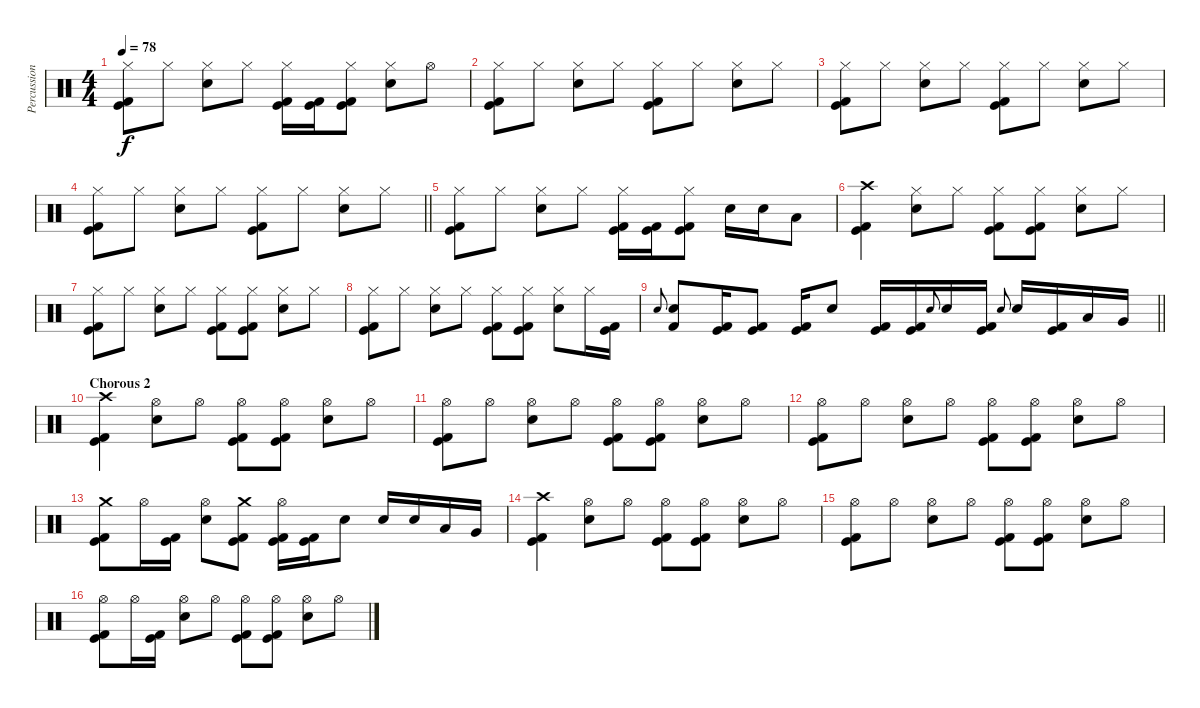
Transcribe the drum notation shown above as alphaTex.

\track ("Percussion" "Percussion") {instrument percussion}
\staff {score}
\articulation defaults
\ts (4 4)
\tempo 78
\clef neutral
\ks c
("Hi-Hat (closed)" "Kick (hit)" "Kick (hit) 2").8{dy f} "Hi-Hat (closed)".8 ("Hi-Hat (closed)" "Electric Snare (hit)").8 "Hi-Hat (closed)".8 ("Hi-Hat (closed)" "Kick (hit)" "Kick (hit) 2").16 ("Kick (hit)" "Kick (hit) 2").16 ("Hi-Hat (closed)" "Kick (hit)" "Kick (hit) 2").8 ("Hi-Hat (closed)" "Electric Snare (hit)").8 "Hi-Hat (open)".8 |
("Hi-Hat (closed)" "Kick (hit)" "Kick (hit) 2").8 "Hi-Hat (closed)".8 ("Hi-Hat (closed)" "Electric Snare (hit)").8 "Hi-Hat (closed)".8 ("Hi-Hat (closed)" "Kick (hit)" "Kick (hit) 2").8 "Hi-Hat (closed)".8 ("Hi-Hat (closed)" "Electric Snare (hit)").8 "Hi-Hat (closed)".8 |
("Hi-Hat (closed)" "Kick (hit)" "Kick (hit) 2").8 "Hi-Hat (closed)".8 ("Hi-Hat (closed)" "Electric Snare (hit)").8 "Hi-Hat (closed)".8 ("Hi-Hat (closed)" "Kick (hit)" "Kick (hit) 2").8 "Hi-Hat (closed)".8 ("Hi-Hat (closed)" "Electric Snare (hit)").8 "Hi-Hat (closed)".8 |
\barLineRight lightlight
("Hi-Hat (closed)" "Kick (hit)" "Kick (hit) 2").8 "Hi-Hat (closed)".8 ("Hi-Hat (closed)" "Electric Snare (hit)").8 "Hi-Hat (closed)".8 ("Hi-Hat (closed)" "Kick (hit)" "Kick (hit) 2").8 "Hi-Hat (closed)".8 ("Hi-Hat (closed)" "Electric Snare (hit)").8 "Hi-Hat (closed)".8 |
\section ("" "")
("Hi-Hat (closed)" "Kick (hit)" "Kick (hit) 2").8 "Hi-Hat (closed)".8 ("Hi-Hat (closed)" "Electric Snare (hit)").8 "Hi-Hat (closed)".8 ("Hi-Hat (closed)" "Kick (hit)" "Kick (hit) 2").16 ("Kick (hit)" "Kick (hit) 2").16 ("Hi-Hat (closed)" "Kick (hit)" "Kick (hit) 2").8 "Electric Snare (hit)".16 "Electric Snare (hit)".16 "Low Tom (hit)".8 |
("Crash high (hit)" "Kick (hit)" "Kick (hit) 2").4 ("Hi-Hat (closed)" "Electric Snare (hit)").8 "Hi-Hat (closed)".8 ("Hi-Hat (closed)" "Kick (hit)" "Kick (hit) 2").8 ("Hi-Hat (closed)" "Kick (hit)" "Kick (hit) 2").8 ("Hi-Hat (closed)" "Electric Snare (hit)").8 "Hi-Hat (closed)".8 |
("Hi-Hat (closed)" "Kick (hit)" "Kick (hit) 2").8 "Hi-Hat (closed)".8 ("Hi-Hat (closed)" "Electric Snare (hit)").8 "Hi-Hat (closed)".8 ("Hi-Hat (closed)" "Kick (hit)" "Kick (hit) 2").8 ("Hi-Hat (closed)" "Kick (hit)" "Kick (hit) 2").8 ("Hi-Hat (closed)" "Electric Snare (hit)").8 "Hi-Hat (closed)".8 |
("Hi-Hat (closed)" "Kick (hit)" "Kick (hit) 2").8 "Hi-Hat (closed)".8 ("Hi-Hat (closed)" "Electric Snare (hit)").8 "Hi-Hat (closed)".8 ("Hi-Hat (closed)" "Kick (hit)" "Kick (hit) 2").8 ("Hi-Hat (closed)" "Kick (hit)" "Kick (hit) 2").8 ("Hi-Hat (closed)" "Electric Snare (hit)").8 "Hi-Hat (closed)".16 ("Kick (hit)" "Kick (hit) 2").16 |
\barLineRight lightlight "Electric Snare (hit)".8{gr onbeat}
("Electric Snare (hit)" "Kick (hit) 2").8 ("Kick (hit)" "Kick (hit) 2").16 ("Kick (hit)" "Kick (hit) 2").8 ("Kick (hit)" "Kick (hit) 2").16 "Electric Snare (hit)".8 ("Kick (hit)" "Kick (hit) 2").16 ("Kick (hit)" "Kick (hit) 2").16 "Electric Snare (hit)".8{gr onbeat} "Electric Snare (hit)".16 ("Kick (hit)" "Kick (hit) 2").16 "Electric Snare (hit)".8{gr onbeat} "Electric Snare (hit)".16 ("Kick (hit)" "Kick (hit) 2").16 "Low Tom (hit)".16 "Very Low Tom (hit)".16 |
\section ("" "Chorous 2")
("Crash high (hit)" "Kick (hit)" "Kick (hit) 2").4 ("Hi-Hat (open)" "Electric Snare (hit)").8 "Hi-Hat (open)".8 ("Hi-Hat (open)" "Kick (hit)" "Kick (hit) 2").8 ("Hi-Hat (open)" "Kick (hit)" "Kick (hit) 2").8 ("Hi-Hat (open)" "Electric Snare (hit)").8 "Hi-Hat (open)".8 |
("Hi-Hat (open)" "Kick (hit)" "Kick (hit) 2").8 "Hi-Hat (open)".8 ("Hi-Hat (open)" "Electric Snare (hit)").8 "Hi-Hat (open)".8 ("Hi-Hat (open)" "Kick (hit)" "Kick (hit) 2").8 ("Hi-Hat (open)" "Kick (hit)" "Kick (hit) 2").8 ("Hi-Hat (open)" "Electric Snare (hit)").8 "Hi-Hat (open)".8 |
("Hi-Hat (open)" "Kick (hit)" "Kick (hit) 2").8 "Hi-Hat (open)".8 ("Hi-Hat (open)" "Electric Snare (hit)").8 "Hi-Hat (open)".8 ("Hi-Hat (open)" "Kick (hit)" "Kick (hit) 2").8 ("Hi-Hat (open)" "Kick (hit)" "Kick (hit) 2").8 ("Hi-Hat (open)" "Electric Snare (hit)").8 "Hi-Hat (open)".8 |
("Crash medium (hit)" "Kick (hit)" "Kick (hit) 2").8 "Hi-Hat (open)".16 ("Kick (hit)" "Kick (hit) 2").16 ("Hi-Hat (open)" "Electric Snare (hit)").8 ("Crash medium (hit)" "Kick (hit)" "Kick (hit) 2").8 ("Hi-Hat (open)" "Kick (hit)" "Kick (hit) 2").16 ("Kick (hit)" "Kick (hit) 2").16 "Electric Snare (hit)".8 "Electric Snare (hit)".16 "Electric Snare (hit)".16 "Low Tom (hit)".16 "Very Low Tom (hit)".16 |
("Crash high (hit)" "Kick (hit)" "Kick (hit) 2").4 ("Hi-Hat (open)" "Electric Snare (hit)").8 "Hi-Hat (open)".8 ("Hi-Hat (open)" "Kick (hit)" "Kick (hit) 2").8 ("Hi-Hat (open)" "Kick (hit)" "Kick (hit) 2").8 ("Hi-Hat (open)" "Electric Snare (hit)").8 "Hi-Hat (open)".8 |
("Hi-Hat (open)" "Kick (hit)" "Kick (hit) 2").8 "Hi-Hat (open)".8 ("Hi-Hat (open)" "Electric Snare (hit)").8 "Hi-Hat (open)".8 ("Hi-Hat (open)" "Kick (hit)" "Kick (hit) 2").8 ("Hi-Hat (open)" "Kick (hit)" "Kick (hit) 2").8 ("Hi-Hat (open)" "Electric Snare (hit)").8 "Hi-Hat (open)".8 |
("Hi-Hat (open)" "Kick (hit)" "Kick (hit) 2").8 "Hi-Hat (open)".16 ("Kick (hit)" "Kick (hit) 2").16 ("Hi-Hat (open)" "Electric Snare (hit)").8 "Hi-Hat (open)".8 ("Hi-Hat (open)" "Kick (hit)" "Kick (hit) 2").8 ("Hi-Hat (open)" "Kick (hit)" "Kick (hit) 2").8 ("Hi-Hat (open)" "Electric Snare (hit)").8 "Hi-Hat (open)".8
